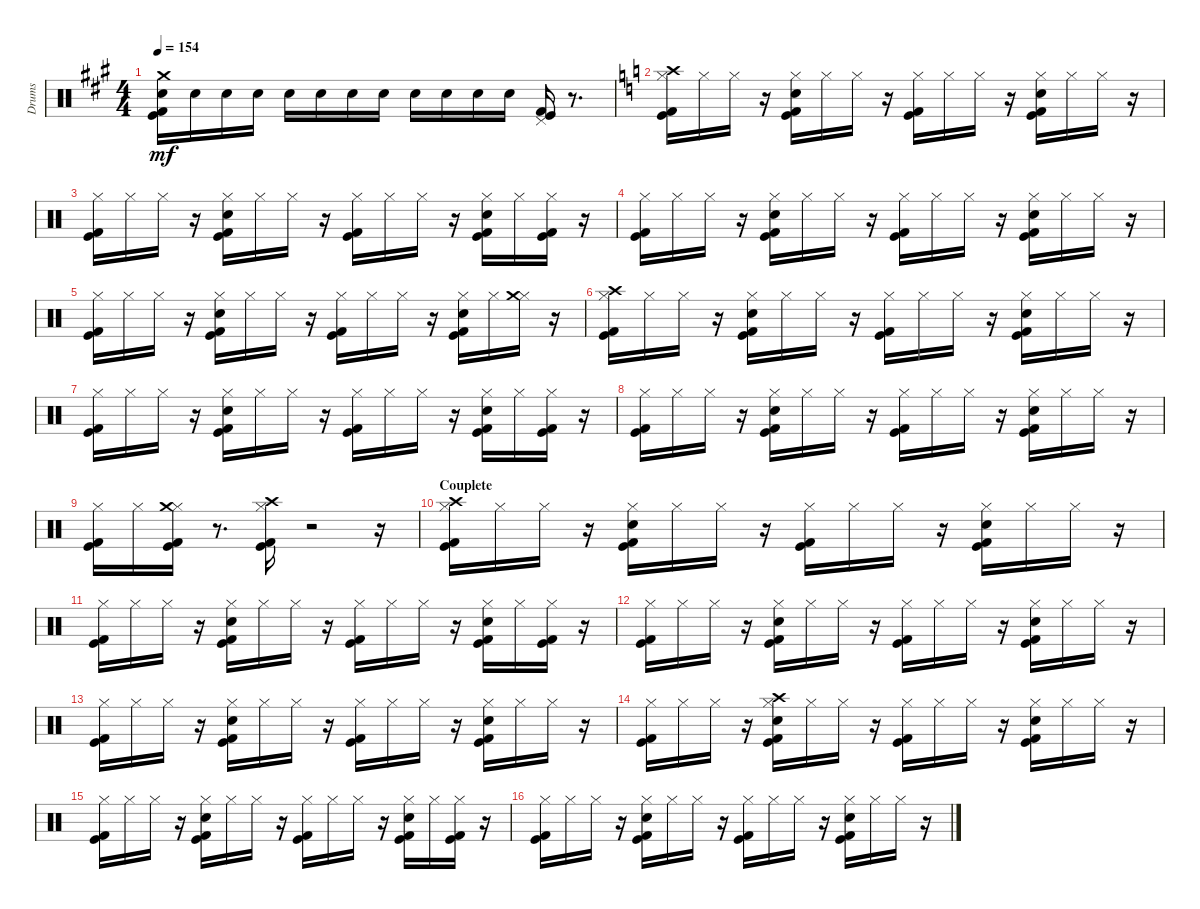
\track ("Drums" "Drums") {instrument percussion}
\staff {score}
\articulation defaults
\ts (4 4)
\tempo 154
\clef neutral
\ks a
("Kick (hit)" "Kick (hit) 2" "Electric Snare (hit)" "Crash medium (hit)").16{dy mf} "Electric Snare (hit)".16 "Electric Snare (hit)".16 "Electric Snare (hit)".16 "Electric Snare (hit)".16 "Electric Snare (hit)".16 "Electric Snare (hit)".16 "Electric Snare (hit)".16 "Electric Snare (hit)".16 "Electric Snare (hit)".16 "Electric Snare (hit)".16 "Electric Snare (hit)".16 ("Kick (hit)" "Kick (hit) 2" "Pedal Hi-Hat (hit)").16 r.8{d} |
\ks c
("Kick (hit)" "Kick (hit) 2" "Hi-Hat (closed)" "Crash high (hit)").16 "Hi-Hat (closed)".16 "Hi-Hat (closed)".16 r.16 ("Kick (hit)" "Kick (hit) 2" "Electric Snare (hit)" "Hi-Hat (closed)").16 "Hi-Hat (closed)".16 "Hi-Hat (closed)".16 r.16 ("Kick (hit)" "Kick (hit) 2" "Hi-Hat (closed)").16 "Hi-Hat (closed)".16 "Hi-Hat (closed)".16 r.16 ("Kick (hit)" "Kick (hit) 2" "Electric Snare (hit)" "Hi-Hat (closed)").16 "Hi-Hat (closed)".16 "Hi-Hat (closed)".16 r.16 |
("Kick (hit)" "Kick (hit) 2" "Hi-Hat (closed)").16 "Hi-Hat (closed)".16 "Hi-Hat (closed)".16 r.16 ("Kick (hit)" "Kick (hit) 2" "Electric Snare (hit)" "Hi-Hat (closed)").16 "Hi-Hat (closed)".16 "Hi-Hat (closed)".16 r.16 ("Kick (hit)" "Kick (hit) 2" "Hi-Hat (closed)").16 "Hi-Hat (closed)".16 "Hi-Hat (closed)".16 r.16 ("Kick (hit)" "Kick (hit) 2" "Electric Snare (hit)" "Hi-Hat (closed)").16 "Hi-Hat (closed)".16 ("Kick (hit)" "Kick (hit) 2" "Hi-Hat (closed)").16 r.16 |
("Kick (hit)" "Kick (hit) 2" "Hi-Hat (closed)").16 "Hi-Hat (closed)".16 "Hi-Hat (closed)".16 r.16 ("Kick (hit)" "Kick (hit) 2" "Electric Snare (hit)" "Hi-Hat (closed)").16 "Hi-Hat (closed)".16 "Hi-Hat (closed)".16 r.16 ("Kick (hit)" "Kick (hit) 2" "Hi-Hat (closed)").16 "Hi-Hat (closed)".16 "Hi-Hat (closed)".16 r.16 ("Kick (hit)" "Kick (hit) 2" "Electric Snare (hit)" "Hi-Hat (closed)").16 "Hi-Hat (closed)".16 "Hi-Hat (closed)".16 r.16 |
("Kick (hit)" "Kick (hit) 2" "Hi-Hat (closed)").16 "Hi-Hat (closed)".16 "Hi-Hat (closed)".16 r.16 ("Kick (hit)" "Kick (hit) 2" "Electric Snare (hit)" "Hi-Hat (closed)").16 "Hi-Hat (closed)".16 "Hi-Hat (closed)".16 r.16 ("Kick (hit)" "Kick (hit) 2" "Hi-Hat (closed)").16 "Hi-Hat (closed)".16 "Hi-Hat (closed)".16 r.16 ("Kick (hit)" "Kick (hit) 2" "Electric Snare (hit)" "Hi-Hat (closed)").16 "Hi-Hat (closed)".16 ("Hi-Hat (closed)" "Crash medium (hit)").16 r.16 |
("Kick (hit)" "Kick (hit) 2" "Hi-Hat (closed)" "Crash high (hit)").16 "Hi-Hat (closed)".16 "Hi-Hat (closed)".16 r.16 ("Kick (hit)" "Kick (hit) 2" "Electric Snare (hit)" "Hi-Hat (closed)").16 "Hi-Hat (closed)".16 "Hi-Hat (closed)".16 r.16 ("Kick (hit)" "Kick (hit) 2" "Hi-Hat (closed)").16 "Hi-Hat (closed)".16 "Hi-Hat (closed)".16 r.16 ("Kick (hit)" "Kick (hit) 2" "Electric Snare (hit)" "Hi-Hat (closed)").16 "Hi-Hat (closed)".16 "Hi-Hat (closed)".16 r.16 |
("Kick (hit)" "Kick (hit) 2" "Hi-Hat (closed)").16 "Hi-Hat (closed)".16 "Hi-Hat (closed)".16 r.16 ("Kick (hit)" "Kick (hit) 2" "Electric Snare (hit)" "Hi-Hat (closed)").16 "Hi-Hat (closed)".16 "Hi-Hat (closed)".16 r.16 ("Kick (hit)" "Kick (hit) 2" "Hi-Hat (closed)").16 "Hi-Hat (closed)".16 "Hi-Hat (closed)".16 r.16 ("Kick (hit)" "Kick (hit) 2" "Electric Snare (hit)" "Hi-Hat (closed)").16 "Hi-Hat (closed)".16 ("Kick (hit)" "Kick (hit) 2" "Hi-Hat (closed)").16 r.16 |
("Kick (hit)" "Kick (hit) 2" "Hi-Hat (closed)").16 "Hi-Hat (closed)".16 "Hi-Hat (closed)".16 r.16 ("Kick (hit)" "Kick (hit) 2" "Electric Snare (hit)" "Hi-Hat (closed)").16 "Hi-Hat (closed)".16 "Hi-Hat (closed)".16 r.16 ("Kick (hit)" "Kick (hit) 2" "Hi-Hat (closed)").16 "Hi-Hat (closed)".16 "Hi-Hat (closed)".16 r.16 ("Kick (hit)" "Kick (hit) 2" "Electric Snare (hit)" "Hi-Hat (closed)").16 "Hi-Hat (closed)".16 "Hi-Hat (closed)".16 r.16 |
("Kick (hit)" "Kick (hit) 2" "Hi-Hat (closed)").16 "Hi-Hat (closed)".16 ("Kick (hit)" "Kick (hit) 2" "Hi-Hat (closed)" "Crash medium (hit)").16 r.8{d} ("Kick (hit)" "Kick (hit) 2" "Hi-Hat (closed)" "Crash high (hit)").16 r.2 r.16 |
\section ("" "Couplete")
("Kick (hit)" "Kick (hit) 2" "Hi-Hat (closed)" "Crash high (hit)").16 "Hi-Hat (closed)".16 "Hi-Hat (closed)".16 r.16 ("Kick (hit)" "Kick (hit) 2" "Electric Snare (hit)" "Hi-Hat (closed)").16 "Hi-Hat (closed)".16 "Hi-Hat (closed)".16 r.16 ("Kick (hit)" "Kick (hit) 2" "Hi-Hat (closed)").16 "Hi-Hat (closed)".16 "Hi-Hat (closed)".16 r.16 ("Kick (hit)" "Kick (hit) 2" "Electric Snare (hit)" "Hi-Hat (closed)").16 "Hi-Hat (closed)".16 "Hi-Hat (closed)".16 r.16 |
("Kick (hit)" "Kick (hit) 2" "Hi-Hat (closed)").16 "Hi-Hat (closed)".16 "Hi-Hat (closed)".16 r.16 ("Kick (hit)" "Kick (hit) 2" "Electric Snare (hit)" "Hi-Hat (closed)").16 "Hi-Hat (closed)".16 "Hi-Hat (closed)".16 r.16 ("Kick (hit)" "Kick (hit) 2" "Hi-Hat (closed)").16 "Hi-Hat (closed)".16 "Hi-Hat (closed)".16 r.16 ("Kick (hit)" "Kick (hit) 2" "Electric Snare (hit)" "Hi-Hat (closed)").16 "Hi-Hat (closed)".16 ("Kick (hit)" "Kick (hit) 2" "Hi-Hat (closed)").16 r.16 |
("Kick (hit)" "Kick (hit) 2" "Hi-Hat (closed)").16 "Hi-Hat (closed)".16 "Hi-Hat (closed)".16 r.16 ("Kick (hit)" "Kick (hit) 2" "Electric Snare (hit)" "Hi-Hat (closed)").16 "Hi-Hat (closed)".16 "Hi-Hat (closed)".16 r.16 ("Kick (hit)" "Kick (hit) 2" "Hi-Hat (closed)").16 "Hi-Hat (closed)".16 "Hi-Hat (closed)".16 r.16 ("Kick (hit)" "Kick (hit) 2" "Electric Snare (hit)" "Hi-Hat (closed)").16 "Hi-Hat (closed)".16 "Hi-Hat (closed)".16 r.16 |
("Kick (hit)" "Kick (hit) 2" "Hi-Hat (closed)").16 "Hi-Hat (closed)".16 "Hi-Hat (closed)".16 r.16 ("Kick (hit)" "Kick (hit) 2" "Electric Snare (hit)" "Hi-Hat (closed)").16 "Hi-Hat (closed)".16 "Hi-Hat (closed)".16 r.16 ("Kick (hit)" "Kick (hit) 2" "Hi-Hat (closed)").16 "Hi-Hat (closed)".16 "Hi-Hat (closed)".16 r.16 ("Kick (hit)" "Kick (hit) 2" "Electric Snare (hit)" "Hi-Hat (closed)").16 "Hi-Hat (closed)".16 "Hi-Hat (closed)".16 r.16 |
("Kick (hit)" "Kick (hit) 2" "Hi-Hat (closed)").16 "Hi-Hat (closed)".16 "Hi-Hat (closed)".16 r.16 ("Kick (hit)" "Kick (hit) 2" "Electric Snare (hit)" "Hi-Hat (closed)" "Crash high (hit)").16 "Hi-Hat (closed)".16 "Hi-Hat (closed)".16 r.16 ("Kick (hit)" "Kick (hit) 2" "Hi-Hat (closed)").16 "Hi-Hat (closed)".16 "Hi-Hat (closed)".16 r.16 ("Kick (hit)" "Kick (hit) 2" "Electric Snare (hit)" "Hi-Hat (closed)").16 "Hi-Hat (closed)".16 "Hi-Hat (closed)".16 r.16 |
("Kick (hit)" "Kick (hit) 2" "Hi-Hat (closed)").16 "Hi-Hat (closed)".16 "Hi-Hat (closed)".16 r.16 ("Kick (hit)" "Kick (hit) 2" "Electric Snare (hit)" "Hi-Hat (closed)").16 "Hi-Hat (closed)".16 "Hi-Hat (closed)".16 r.16 ("Kick (hit)" "Kick (hit) 2" "Hi-Hat (closed)").16 "Hi-Hat (closed)".16 "Hi-Hat (closed)".16 r.16 ("Kick (hit)" "Kick (hit) 2" "Electric Snare (hit)" "Hi-Hat (closed)").16 "Hi-Hat (closed)".16 ("Kick (hit)" "Kick (hit) 2" "Hi-Hat (closed)").16 r.16 |
("Kick (hit)" "Kick (hit) 2" "Hi-Hat (closed)").16 "Hi-Hat (closed)".16 "Hi-Hat (closed)".16 r.16 ("Kick (hit)" "Kick (hit) 2" "Electric Snare (hit)" "Hi-Hat (closed)").16 "Hi-Hat (closed)".16 "Hi-Hat (closed)".16 r.16 ("Kick (hit)" "Kick (hit) 2" "Hi-Hat (closed)").16 "Hi-Hat (closed)".16 "Hi-Hat (closed)".16 r.16 ("Kick (hit)" "Kick (hit) 2" "Electric Snare (hit)" "Hi-Hat (closed)").16 "Hi-Hat (closed)".16 "Hi-Hat (closed)".16 r.16
